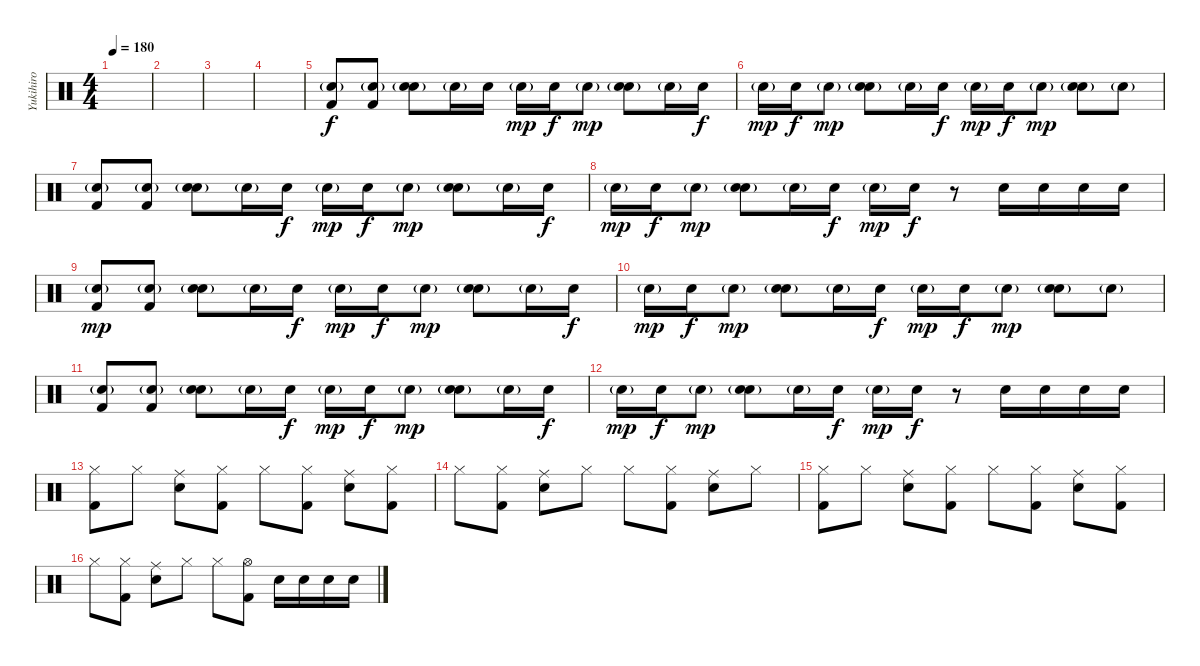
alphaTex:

\track ("Yukihiro" "Yukihiro") {instrument percussion}
\staff {score}
\articulation defaults
\ts (4 4)
\tempo 180
\clef neutral
\ks c
|
|
|
|
("Electric Snare (hit)"{g} "Kick (hit) 2").8{volume 12} ("Electric Snare (hit)"{g} "Kick (hit) 2").8 ("Electric Snare (hit)"{g} "Electric Snare (hit)").8 "Electric Snare (hit)"{g}.16 "Electric Snare (hit)".16{dy f} "Electric Snare (hit)"{g}.16{dy mp} "Electric Snare (hit)".16{dy f} "Electric Snare (hit)"{g}.8{dy mp} ("Electric Snare (hit)"{g} "Electric Snare (hit)").8 "Electric Snare (hit)"{g}.16 "Electric Snare (hit)".16{dy f} |
"Electric Snare (hit)"{g}.16{dy mp} "Electric Snare (hit)".16{dy f} "Electric Snare (hit)"{g}.8{dy mp} ("Electric Snare (hit)"{g} "Electric Snare (hit)").8 "Electric Snare (hit)"{g}.16 "Electric Snare (hit)".16{dy f} "Electric Snare (hit)"{g}.16{dy mp} "Electric Snare (hit)".16{dy f} "Electric Snare (hit)"{g}.8{dy mp} ("Electric Snare (hit)"{g} "Electric Snare (hit)").8 "Electric Snare (hit)"{g}.8 |
("Electric Snare (hit)"{g} "Kick (hit) 2").8 ("Electric Snare (hit)"{g} "Kick (hit) 2").8 ("Electric Snare (hit)"{g} "Electric Snare (hit)").8 "Electric Snare (hit)"{g}.16 "Electric Snare (hit)".16{dy f} "Electric Snare (hit)"{g}.16{dy mp} "Electric Snare (hit)".16{dy f} "Electric Snare (hit)"{g}.8{dy mp} ("Electric Snare (hit)"{g} "Electric Snare (hit)").8 "Electric Snare (hit)"{g}.16 "Electric Snare (hit)".16{dy f} |
"Electric Snare (hit)"{g}.16{dy mp} "Electric Snare (hit)".16{dy f} "Electric Snare (hit)"{g}.8{dy mp} ("Electric Snare (hit)"{g} "Electric Snare (hit)").8 "Electric Snare (hit)"{g}.16 "Electric Snare (hit)".16{dy f} "Electric Snare (hit)"{g}.16{dy mp} "Electric Snare (hit)".16{dy f} r.8{volume 16} "Electric Snare (hit)".16 "Electric Snare (hit)".16 "Electric Snare (hit)".16 "Electric Snare (hit)".16 |
("Electric Snare (hit)"{g} "Kick (hit) 2").8{dy mp volume 16} ("Electric Snare (hit)"{g} "Kick (hit) 2").8 ("Electric Snare (hit)"{g} "Electric Snare (hit)").8 "Electric Snare (hit)"{g}.16 "Electric Snare (hit)".16{dy f} "Electric Snare (hit)"{g}.16{dy mp} "Electric Snare (hit)".16{dy f} "Electric Snare (hit)"{g}.8{dy mp} ("Electric Snare (hit)"{g} "Electric Snare (hit)").8 "Electric Snare (hit)"{g}.16 "Electric Snare (hit)".16{dy f} |
"Electric Snare (hit)"{g}.16{dy mp} "Electric Snare (hit)".16{dy f} "Electric Snare (hit)"{g}.8{dy mp} ("Electric Snare (hit)"{g} "Electric Snare (hit)").8 "Electric Snare (hit)"{g}.16 "Electric Snare (hit)".16{dy f} "Electric Snare (hit)"{g}.16{dy mp} "Electric Snare (hit)".16{dy f} "Electric Snare (hit)"{g}.8{dy mp} ("Electric Snare (hit)"{g} "Electric Snare (hit)").8 "Electric Snare (hit)"{g}.8 |
("Electric Snare (hit)"{g} "Kick (hit) 2").8 ("Electric Snare (hit)"{g} "Kick (hit) 2").8 ("Electric Snare (hit)"{g} "Electric Snare (hit)").8 "Electric Snare (hit)"{g}.16 "Electric Snare (hit)".16{dy f} "Electric Snare (hit)"{g}.16{dy mp} "Electric Snare (hit)".16{dy f} "Electric Snare (hit)"{g}.8{dy mp} ("Electric Snare (hit)"{g} "Electric Snare (hit)").8 "Electric Snare (hit)"{g}.16 "Electric Snare (hit)".16{dy f} |
"Electric Snare (hit)"{g}.16{dy mp} "Electric Snare (hit)".16{dy f} "Electric Snare (hit)"{g}.8{dy mp} ("Electric Snare (hit)"{g} "Electric Snare (hit)").8 "Electric Snare (hit)"{g}.16 "Electric Snare (hit)".16{dy f} "Electric Snare (hit)"{g}.16{dy mp} "Electric Snare (hit)".16{dy f} r.8{volume 16} "Electric Snare (hit)".16 "Electric Snare (hit)".16 "Electric Snare (hit)".16 "Electric Snare (hit)".16 |
("Hi-Hat (closed)" "Kick (hit) 2").8 "Hi-Hat (closed)".8 ("Ride (middle)" "Electric Snare (hit)").8 ("Hi-Hat (closed)" "Kick (hit) 2").8 "Hi-Hat (closed)".8 ("Hi-Hat (closed)" "Kick (hit) 2").8 ("Ride (middle)" "Electric Snare (hit)").8 ("Hi-Hat (closed)" "Kick (hit) 2").8 |
"Hi-Hat (closed)".8 ("Hi-Hat (closed)" "Kick (hit) 2").8 ("Ride (middle)" "Electric Snare (hit)").8 "Hi-Hat (closed)".8 "Hi-Hat (closed)".8 ("Hi-Hat (closed)" "Kick (hit) 2").8 ("Ride (middle)" "Electric Snare (hit)").8 "Hi-Hat (closed)".8 |
("Hi-Hat (closed)" "Kick (hit) 2").8 "Hi-Hat (closed)".8 ("Ride (middle)" "Electric Snare (hit)").8 ("Hi-Hat (closed)" "Kick (hit) 2").8 "Hi-Hat (closed)".8 ("Hi-Hat (closed)" "Kick (hit) 2").8 ("Ride (middle)" "Electric Snare (hit)").8 ("Hi-Hat (closed)" "Kick (hit) 2").8 |
"Hi-Hat (closed)".8 ("Hi-Hat (closed)" "Kick (hit) 2").8 ("Ride (middle)" "Electric Snare (hit)").8 "Hi-Hat (closed)".8 "Hi-Hat (closed)".8 ("Hi-Hat (open)" "Kick (hit) 2").8 "Electric Snare (hit)".16 "Electric Snare (hit)".16 "Electric Snare (hit)".16 "Electric Snare (hit)".16
